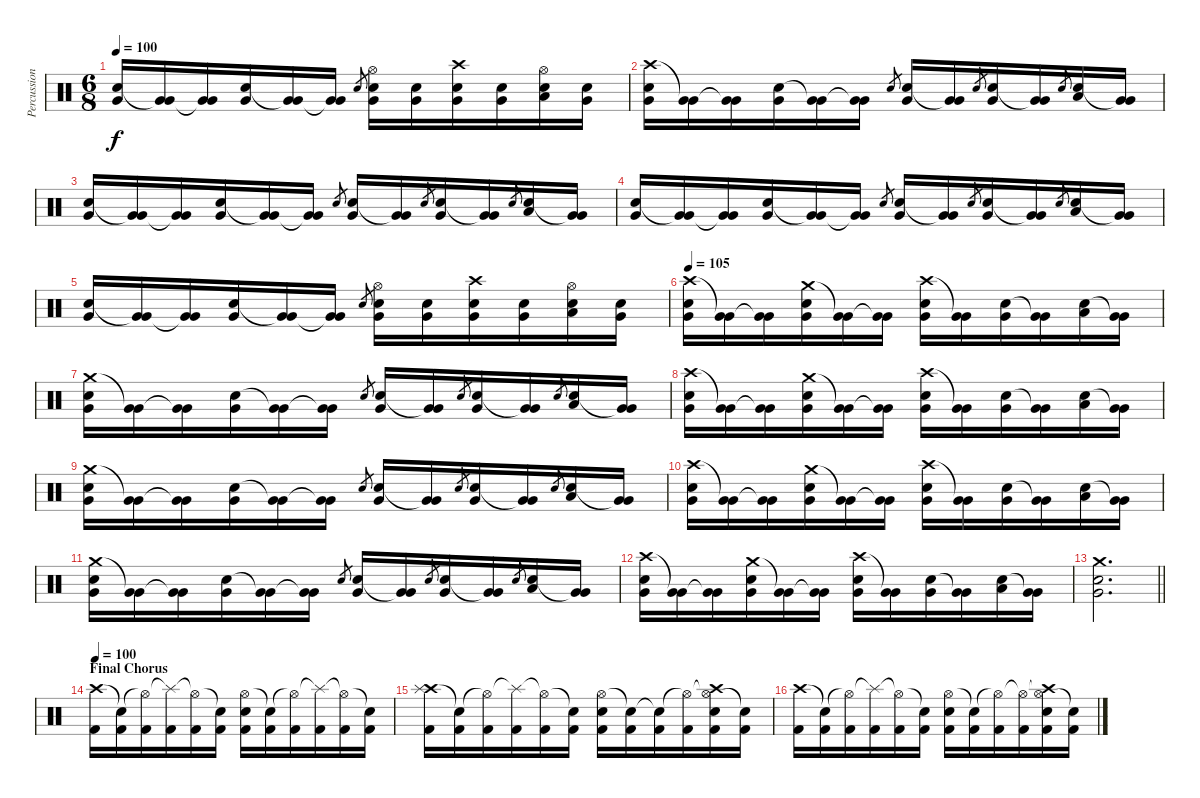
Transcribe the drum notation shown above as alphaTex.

\track ("Percussion" "Percussion") {instrument percussion}
\staff {score}
\articulation defaults
\ts (6 8)
\tempo 100
\clef neutral
\ks c
("Electric Snare (hit)" "Very Low Tom (hit)").16{dy f} ("Very Low Tom (hit)"{t} "Very Low Tom (hit)").16 ("Very Low Tom (hit)"{t} "Very Low Tom (hit)").16 ("Electric Snare (hit)" "Very Low Tom (hit)").16 ("Very Low Tom (hit)"{t} "Very Low Tom (hit)").16 ("Very Low Tom (hit)"{t} "Very Low Tom (hit)").16 "Electric Snare (hit)".8{gr} ("Hi-Hat (open)" "Electric Snare (hit)" "Very Low Tom (hit)").16 ("Electric Snare (hit)" "Very Low Tom (hit)").16 ("Crash high (hit)" "Electric Snare (hit)" "Very Low Tom (hit)").16 ("Electric Snare (hit)" "Very Low Tom (hit)").16 ("Hi-Hat (open)" "Electric Snare (hit)" "Low Floor Tom (hit)").16 ("Electric Snare (hit)" "Very Low Tom (hit)").16 |
("Crash high (hit)" "Electric Snare (hit)" "Very Low Tom (hit)").16 ("Very Low Tom (hit)"{t} "Very Low Tom (hit)").16 ("Very Low Tom (hit)"{t} "Very Low Tom (hit)").16 ("Electric Snare (hit)" "Very Low Tom (hit)").16 ("Very Low Tom (hit)"{t} "Very Low Tom (hit)").16 ("Very Low Tom (hit)"{t} "Very Low Tom (hit)").16 "Electric Snare (hit)".8{gr} ("Electric Snare (hit)" "Very Low Tom (hit)").16 ("Very Low Tom (hit)"{t} "Very Low Tom (hit)").16 "Electric Snare (hit)".8{gr} ("Electric Snare (hit)" "Very Low Tom (hit)").16 ("Very Low Tom (hit)"{t} "Very Low Tom (hit)").16 "Electric Snare (hit)".8{gr} ("Electric Snare (hit)" "Low Floor Tom (hit)").16 ("Very Low Tom (hit)"{t} "Very Low Tom (hit)").16 |
("Electric Snare (hit)" "Very Low Tom (hit)").16 ("Very Low Tom (hit)"{t} "Very Low Tom (hit)").16 ("Very Low Tom (hit)"{t} "Very Low Tom (hit)").16 ("Electric Snare (hit)" "Very Low Tom (hit)").16 ("Very Low Tom (hit)"{t} "Very Low Tom (hit)").16 ("Very Low Tom (hit)"{t} "Very Low Tom (hit)").16 "Electric Snare (hit)".8{gr} ("Electric Snare (hit)" "Very Low Tom (hit)").16 ("Very Low Tom (hit)"{t} "Very Low Tom (hit)").16 "Electric Snare (hit)".8{gr} ("Electric Snare (hit)" "Very Low Tom (hit)").16 ("Very Low Tom (hit)"{t} "Very Low Tom (hit)").16 "Electric Snare (hit)".8{gr} ("Electric Snare (hit)" "Low Floor Tom (hit)").16 ("Very Low Tom (hit)"{t} "Very Low Tom (hit)").16 |
("Electric Snare (hit)" "Very Low Tom (hit)").16 ("Very Low Tom (hit)"{t} "Very Low Tom (hit)").16 ("Very Low Tom (hit)"{t} "Very Low Tom (hit)").16 ("Electric Snare (hit)" "Very Low Tom (hit)").16 ("Very Low Tom (hit)"{t} "Very Low Tom (hit)").16 ("Very Low Tom (hit)"{t} "Very Low Tom (hit)").16 "Electric Snare (hit)".8{gr} ("Electric Snare (hit)" "Very Low Tom (hit)").16 ("Very Low Tom (hit)"{t} "Very Low Tom (hit)").16 "Electric Snare (hit)".8{gr} ("Electric Snare (hit)" "Very Low Tom (hit)").16 ("Very Low Tom (hit)"{t} "Very Low Tom (hit)").16 "Electric Snare (hit)".8{gr} ("Electric Snare (hit)" "Low Floor Tom (hit)").16 ("Very Low Tom (hit)"{t} "Very Low Tom (hit)").16 |
("Electric Snare (hit)" "Very Low Tom (hit)").16 ("Very Low Tom (hit)"{t} "Very Low Tom (hit)").16 ("Very Low Tom (hit)"{t} "Very Low Tom (hit)").16 ("Electric Snare (hit)" "Very Low Tom (hit)").16 ("Very Low Tom (hit)"{t} "Very Low Tom (hit)").16 ("Very Low Tom (hit)"{t} "Very Low Tom (hit)").16 "Electric Snare (hit)".8{gr} ("Hi-Hat (open)" "Electric Snare (hit)" "Very Low Tom (hit)").16 ("Electric Snare (hit)" "Very Low Tom (hit)").16 ("Crash high (hit)" "Electric Snare (hit)" "Very Low Tom (hit)").16 ("Electric Snare (hit)" "Very Low Tom (hit)").16 ("Hi-Hat (open)" "Electric Snare (hit)" "Low Floor Tom (hit)").16 ("Electric Snare (hit)" "Very Low Tom (hit)").16 |
\tempo 105
("Crash high (hit)" "Electric Snare (hit)" "Very Low Tom (hit)").16 ("Very Low Tom (hit)"{t} "Very Low Tom (hit)").16 ("Very Low Tom (hit)"{t} "Very Low Tom (hit)").16 ("Crash medium (hit)" "Electric Snare (hit)" "Very Low Tom (hit)").16 ("Very Low Tom (hit)"{t} "Very Low Tom (hit)").16 ("Very Low Tom (hit)"{t} "Very Low Tom (hit)").16 ("Crash high (hit)" "Electric Snare (hit)" "Very Low Tom (hit)").16 ("Very Low Tom (hit)"{t} "Very Low Tom (hit)").16 ("Electric Snare (hit)" "Very Low Tom (hit)").16 ("Very Low Tom (hit)"{t} "Very Low Tom (hit)").16 ("Electric Snare (hit)" "Low Floor Tom (hit)").16 ("Very Low Tom (hit)"{t} "Very Low Tom (hit)").16 |
("Crash medium (hit)" "Electric Snare (hit)" "Very Low Tom (hit)").16 ("Very Low Tom (hit)"{t} "Very Low Tom (hit)").16 ("Very Low Tom (hit)"{t} "Very Low Tom (hit)").16 ("Electric Snare (hit)" "Very Low Tom (hit)").16 ("Very Low Tom (hit)"{t} "Very Low Tom (hit)").16 ("Very Low Tom (hit)"{t} "Very Low Tom (hit)").16 "Electric Snare (hit)".8{gr} ("Electric Snare (hit)" "Very Low Tom (hit)").16 ("Very Low Tom (hit)"{t} "Very Low Tom (hit)").16 "Electric Snare (hit)".8{gr} ("Electric Snare (hit)" "Very Low Tom (hit)").16 ("Very Low Tom (hit)"{t} "Very Low Tom (hit)").16 "Electric Snare (hit)".8{gr} ("Electric Snare (hit)" "Low Floor Tom (hit)").16 ("Very Low Tom (hit)"{t} "Very Low Tom (hit)").16 |
("Crash high (hit)" "Electric Snare (hit)" "Very Low Tom (hit)").16 ("Very Low Tom (hit)"{t} "Very Low Tom (hit)").16 ("Very Low Tom (hit)"{t} "Very Low Tom (hit)").16 ("Crash medium (hit)" "Electric Snare (hit)" "Very Low Tom (hit)").16 ("Very Low Tom (hit)"{t} "Very Low Tom (hit)").16 ("Very Low Tom (hit)"{t} "Very Low Tom (hit)").16 ("Crash high (hit)" "Electric Snare (hit)" "Very Low Tom (hit)").16 ("Very Low Tom (hit)"{t} "Very Low Tom (hit)").16 ("Electric Snare (hit)" "Very Low Tom (hit)").16 ("Very Low Tom (hit)"{t} "Very Low Tom (hit)").16 ("Electric Snare (hit)" "Low Floor Tom (hit)").16 ("Very Low Tom (hit)"{t} "Very Low Tom (hit)").16 |
("Crash medium (hit)" "Electric Snare (hit)" "Very Low Tom (hit)").16 ("Very Low Tom (hit)"{t} "Very Low Tom (hit)").16 ("Very Low Tom (hit)"{t} "Very Low Tom (hit)").16 ("Electric Snare (hit)" "Very Low Tom (hit)").16 ("Very Low Tom (hit)"{t} "Very Low Tom (hit)").16 ("Very Low Tom (hit)"{t} "Very Low Tom (hit)").16 "Electric Snare (hit)".8{gr} ("Electric Snare (hit)" "Very Low Tom (hit)").16 ("Very Low Tom (hit)"{t} "Very Low Tom (hit)").16 "Electric Snare (hit)".8{gr} ("Electric Snare (hit)" "Very Low Tom (hit)").16 ("Very Low Tom (hit)"{t} "Very Low Tom (hit)").16 "Electric Snare (hit)".8{gr} ("Electric Snare (hit)" "Low Floor Tom (hit)").16 ("Very Low Tom (hit)"{t} "Very Low Tom (hit)").16 |
("Crash high (hit)" "Electric Snare (hit)" "Very Low Tom (hit)").16 ("Very Low Tom (hit)"{t} "Very Low Tom (hit)").16 ("Very Low Tom (hit)"{t} "Very Low Tom (hit)").16 ("Crash medium (hit)" "Electric Snare (hit)" "Very Low Tom (hit)").16 ("Very Low Tom (hit)"{t} "Very Low Tom (hit)").16 ("Very Low Tom (hit)"{t} "Very Low Tom (hit)").16 ("Crash high (hit)" "Electric Snare (hit)" "Very Low Tom (hit)").16 ("Very Low Tom (hit)"{t} "Very Low Tom (hit)").16 ("Electric Snare (hit)" "Very Low Tom (hit)").16 ("Very Low Tom (hit)"{t} "Very Low Tom (hit)").16 ("Electric Snare (hit)" "Low Floor Tom (hit)").16 ("Very Low Tom (hit)"{t} "Very Low Tom (hit)").16 |
("Crash medium (hit)" "Electric Snare (hit)" "Very Low Tom (hit)").16 ("Very Low Tom (hit)"{t} "Very Low Tom (hit)").16 ("Very Low Tom (hit)"{t} "Very Low Tom (hit)").16 ("Electric Snare (hit)" "Very Low Tom (hit)").16 ("Very Low Tom (hit)"{t} "Very Low Tom (hit)").16 ("Very Low Tom (hit)"{t} "Very Low Tom (hit)").16 "Electric Snare (hit)".8{gr} ("Electric Snare (hit)" "Very Low Tom (hit)").16 ("Very Low Tom (hit)"{t} "Very Low Tom (hit)").16 "Electric Snare (hit)".8{gr} ("Electric Snare (hit)" "Very Low Tom (hit)").16 ("Very Low Tom (hit)"{t} "Very Low Tom (hit)").16 "Electric Snare (hit)".8{gr} ("Electric Snare (hit)" "Low Floor Tom (hit)").16 ("Very Low Tom (hit)"{t} "Very Low Tom (hit)").16 |
("Crash high (hit)" "Electric Snare (hit)" "Very Low Tom (hit)").16 ("Very Low Tom (hit)"{t} "Very Low Tom (hit)").16 ("Very Low Tom (hit)"{t} "Very Low Tom (hit)").16 ("Crash medium (hit)" "Electric Snare (hit)" "Very Low Tom (hit)").16 ("Very Low Tom (hit)"{t} "Very Low Tom (hit)").16 ("Very Low Tom (hit)"{t} "Very Low Tom (hit)").16 ("Crash high (hit)" "Electric Snare (hit)" "Very Low Tom (hit)").16 ("Very Low Tom (hit)"{t} "Very Low Tom (hit)").16 ("Electric Snare (hit)" "Very Low Tom (hit)").16 ("Very Low Tom (hit)"{t} "Very Low Tom (hit)").16 ("Electric Snare (hit)" "Low Floor Tom (hit)").16 ("Very Low Tom (hit)"{t} "Very Low Tom (hit)").16 |
\barLineRight lightlight
("Crash medium (hit)" "Electric Snare (hit)" "Very Low Tom (hit)").2{d} |
\section ("" "Final Chorus")
\tempo 100
("Crash high (hit)" "Kick (hit) 2").16 ("Snare (hit)"{t} "Kick (hit) 2").16 ("Hi-Hat (open)"{t} "Kick (hit) 2").16 ("Splash (hit)"{t} "Kick (hit) 2").16 ("Hi-Hat (open)"{t} "Kick (hit) 2").16 ("Snare (hit)"{t} "Kick (hit) 2").16 ("Hi-Hat (open)" "Electric Snare (hit)" "Kick (hit) 2").16 ("Snare (hit)"{t} "Kick (hit) 2").16 ("Hi-Hat (open)"{t} "Kick (hit) 2").16 ("Splash (hit)"{t} "Kick (hit) 2").16 ("Hi-Hat (open)"{t} "Kick (hit) 2").16 ("Snare (hit)"{t} "Kick (hit) 2").16 |
("Crash high (hit)" "Splash (hit)" "Kick (hit) 2").16 ("Snare (hit)"{t} "Kick (hit) 2").16 ("Hi-Hat (open)"{t} "Kick (hit) 2").16 ("Splash (hit)"{t} "Kick (hit) 2").16 ("Hi-Hat (open)"{t} "Kick (hit) 2").16 ("Snare (hit)"{t} "Kick (hit) 2").16 ("Hi-Hat (open)" "Electric Snare (hit)" "Kick (hit) 2").16 ("Snare (hit)"{t} "Kick (hit) 2").16 ("Snare (hit)"{t} "Kick (hit) 2").16 ("Hi-Hat (open)"{t} "Kick (hit) 2").16 ("Hi-Hat (open)"{t} "Crash high (hit)" "Electric Snare (hit)" "Kick (hit) 2").16 ("Snare (hit)"{t} "Kick (hit) 2").16 |
("Crash high (hit)" "Kick (hit) 2").16 ("Snare (hit)"{t} "Kick (hit) 2").16 ("Hi-Hat (open)"{t} "Kick (hit) 2").16 ("Splash (hit)"{t} "Kick (hit) 2").16 ("Hi-Hat (open)"{t} "Kick (hit) 2").16 ("Snare (hit)"{t} "Kick (hit) 2").16 ("Hi-Hat (open)" "Electric Snare (hit)" "Kick (hit) 2").16 ("Snare (hit)"{t} "Kick (hit) 2").16 ("Hi-Hat (open)"{t} "Kick (hit) 2").16 ("Hi-Hat (open)"{t} "Kick (hit) 2").16 ("Hi-Hat (open)"{t} "Crash high (hit)" "Electric Snare (hit)" "Kick (hit) 2").16 ("Snare (hit)"{t} "Kick (hit) 2").16
